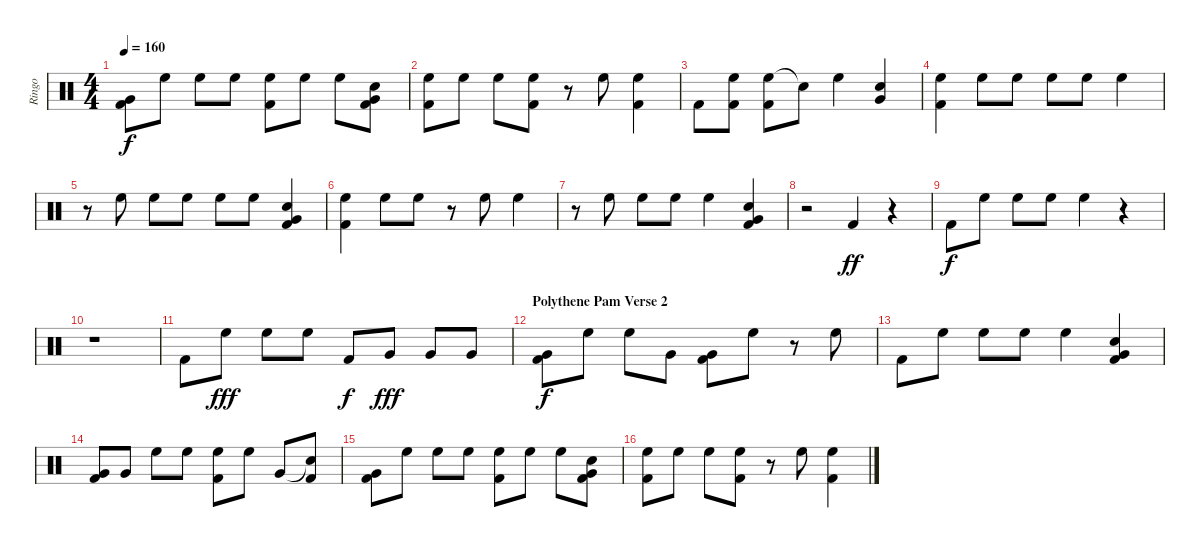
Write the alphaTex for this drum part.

\track ("Ringo" "Ringo") {instrument percussion}
\staff {score}
\articulation defaults
\ts (4 4)
\tempo 160
\clef neutral
\ks c
("Very Low Tom (hit)" "Kick (hit) 2").8{dy f} "High Floor Tom (hit)".8 "High Floor Tom (hit)".8 "High Floor Tom (hit)".8 ("High Floor Tom (hit)" "Kick (hit) 2").8 "High Floor Tom (hit)".8 "High Floor Tom (hit)".8 ("Very Low Tom (hit)" "Snare (hit) 2" "Kick (hit) 2").8 |
("High Floor Tom (hit)" "Kick (hit) 2").8 "High Floor Tom (hit)".8 "High Floor Tom (hit)".8 ("High Floor Tom (hit)" "Kick (hit) 2").8 r.8 "High Floor Tom (hit)".8 ("High Floor Tom (hit)" "Kick (hit) 2").4 |
"Kick (hit) 2".8 ("High Floor Tom (hit)" "Kick (hit) 2").8 ("High Floor Tom (hit)" "Kick (hit) 2").8 "Snare (hit)"{t}.8 "High Floor Tom (hit)".4 ("Very Low Tom (hit)" "Snare (hit) 2").4 |
("High Floor Tom (hit)" "Kick (hit) 2").4 "High Floor Tom (hit)".8 "High Floor Tom (hit)".8 "High Floor Tom (hit)".8 "High Floor Tom (hit)".8 "High Floor Tom (hit)".4 |
r.8 "High Floor Tom (hit)".8 "High Floor Tom (hit)".8 "High Floor Tom (hit)".8 "High Floor Tom (hit)".8 "High Floor Tom (hit)".8 ("Very Low Tom (hit)" "Snare (hit) 2" "Kick (hit) 2").4 |
("High Floor Tom (hit)" "Kick (hit) 2").4 "High Floor Tom (hit)".8 "High Floor Tom (hit)".8 r.8 "High Floor Tom (hit)".8 "High Floor Tom (hit)".4 |
r.8 "High Floor Tom (hit)".8 "High Floor Tom (hit)".8 "High Floor Tom (hit)".8 "High Floor Tom (hit)".4 ("Very Low Tom (hit)" "Snare (hit) 2" "Kick (hit) 2").4 |
r.2 "Kick (hit) 2".4{dy ff} r.4 |
"Kick (hit) 2".8{dy f} "High Floor Tom (hit)".8 "High Floor Tom (hit)".8 "High Floor Tom (hit)".8 "High Floor Tom (hit)".4 r.4 |
r.1 |
"Kick (hit) 2".8 "High Floor Tom (hit)".8{dy fff} "High Floor Tom (hit)".8 "High Floor Tom (hit)".8 "Kick (hit) 2".8{dy f} "Very Low Tom (hit)".8{dy fff} "Very Low Tom (hit)".8 "Very Low Tom (hit)".8 |
\section ("" "Polythene Pam Verse 2")
("Very Low Tom (hit)" "Kick (hit) 2").8{dy f} "High Floor Tom (hit)".8 "High Floor Tom (hit)".8 "Very Low Tom (hit)".8 ("Very Low Tom (hit)" "Kick (hit) 2").8 "High Floor Tom (hit)".8 r.8 "High Floor Tom (hit)".8 |
"Kick (hit) 2".8 "High Floor Tom (hit)".8 "High Floor Tom (hit)".8 "High Floor Tom (hit)".8 "High Floor Tom (hit)".4 ("Very Low Tom (hit)" "Snare (hit) 2" "Kick (hit) 2").4 |
("Very Low Tom (hit)" "Kick (hit) 2").8 "Very Low Tom (hit)".8 "High Floor Tom (hit)".8 "High Floor Tom (hit)".8 ("High Floor Tom (hit)" "Kick (hit) 2").8 "High Floor Tom (hit)".8 "Very Low Tom (hit)".8 ("Snare (hit)"{t} "Kick (hit) 2").8 |
("Very Low Tom (hit)" "Kick (hit) 2").8 "High Floor Tom (hit)".8 "High Floor Tom (hit)".8 "High Floor Tom (hit)".8 ("High Floor Tom (hit)" "Kick (hit) 2").8 "High Floor Tom (hit)".8 "High Floor Tom (hit)".8 ("Very Low Tom (hit)" "Snare (hit) 2" "Kick (hit) 2").8 |
("High Floor Tom (hit)" "Kick (hit) 2").8 "High Floor Tom (hit)".8 "High Floor Tom (hit)".8 ("High Floor Tom (hit)" "Kick (hit) 2").8 r.8 "High Floor Tom (hit)".8 ("High Floor Tom (hit)" "Kick (hit) 2").4
